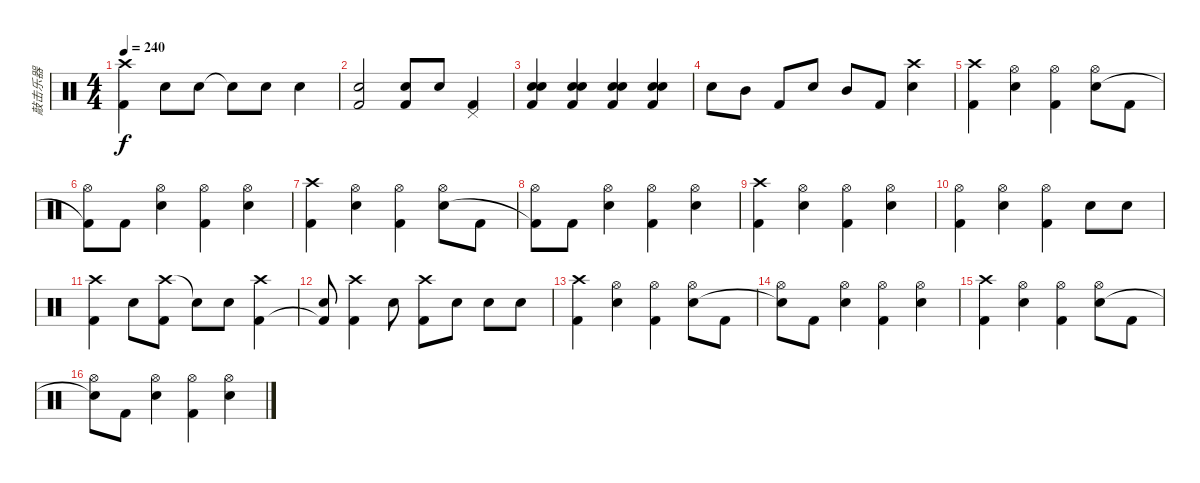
\track ("敲击乐器" "敲击乐器") {instrument percussion}
\staff {score}
\articulation defaults
\ts (4 4)
\tempo 240
\clef neutral
\ks c
("Crash high (hit)" "Kick (hit) 2").4{dy f} "Electric Snare (hit)".8 "Electric Snare (hit)".8 "Snare (hit)"{t}.8 "Electric Snare (hit)".8 "Electric Snare (hit)".4 |
("Electric Snare (hit)" "Kick (hit) 2").2 ("Electric Snare (hit)" "Kick (hit) 2").8 "Electric Snare (hit)".8 ("Pedal Hi-Hat (hit)" "Kick (hit) 2").4 |
("Electric Snare (hit)" "Snare (hit) 2" "Kick (hit) 2").4 ("Electric Snare (hit)" "Snare (hit) 2" "Kick (hit) 2").4 ("Electric Snare (hit)" "Snare (hit) 2" "Kick (hit) 2").4 ("Electric Snare (hit)" "Snare (hit) 2" "Kick (hit) 2").4 |
"Electric Snare (hit)".8 "Mid Tom (hit)".8 "Kick (hit) 2".8 "Snare (hit) 2".8 "Mid Tom (hit)".8 "Kick (hit) 2".8 ("Crash high (hit)" "Electric Snare (hit)").4 |
("Crash high (hit)" "Kick (hit) 2").4 ("Hi-Hat (open)" "Electric Snare (hit)").4 ("Hi-Hat (open)" "Kick (hit) 2").4 ("Hi-Hat (open)" "Electric Snare (hit)").8 "Kick (hit) 2".8 |
("Hi-Hat (open)" "Kick (hit) 2"{t}).8 "Kick (hit) 2".8 ("Hi-Hat (open)" "Electric Snare (hit)").4 ("Hi-Hat (open)" "Kick (hit) 2").4 ("Hi-Hat (open)" "Electric Snare (hit)").4 |
("Crash high (hit)" "Kick (hit) 2").4 ("Hi-Hat (open)" "Electric Snare (hit)").4 ("Hi-Hat (open)" "Kick (hit) 2").4 ("Hi-Hat (open)" "Electric Snare (hit)").8 "Kick (hit) 2".8 |
("Hi-Hat (open)" "Kick (hit) 2"{t}).8 "Kick (hit) 2".8 ("Hi-Hat (open)" "Electric Snare (hit)").4 ("Hi-Hat (open)" "Kick (hit) 2").4 ("Hi-Hat (open)" "Electric Snare (hit)").4 |
("Crash high (hit)" "Kick (hit) 2").4 ("Hi-Hat (open)" "Electric Snare (hit)").4 ("Hi-Hat (open)" "Kick (hit) 2").4 ("Hi-Hat (open)" "Electric Snare (hit)").4 |
("Hi-Hat (open)" "Kick (hit) 2").4 ("Hi-Hat (open)" "Electric Snare (hit)").4 ("Hi-Hat (open)" "Kick (hit) 2").4 "Electric Snare (hit)".8 "Electric Snare (hit)".8 |
("Crash high (hit)" "Kick (hit) 2").4 "Electric Snare (hit)".8 ("Crash high (hit)" "Kick (hit) 2").8 "Snare (hit)"{t}.8 "Electric Snare (hit)".8 ("Crash high (hit)" "Kick (hit) 2").4 |
("Electric Snare (hit)" "Kick (hit) 2"{t}).8 ("Crash high (hit)" "Kick (hit) 2").4 "Electric Snare (hit)".8 ("Crash high (hit)" "Kick (hit) 2").8 "Electric Snare (hit)".8 "Electric Snare (hit)".8 "Electric Snare (hit)".8 |
("Crash high (hit)" "Kick (hit) 2").4 ("Hi-Hat (open)" "Electric Snare (hit)").4 ("Hi-Hat (open)" "Kick (hit) 2").4 ("Hi-Hat (open)" "Electric Snare (hit)").8 "Kick (hit) 2".8 |
("Hi-Hat (open)" "Snare (hit)"{t}).8 "Kick (hit) 2".8 ("Hi-Hat (open)" "Electric Snare (hit)").4 ("Hi-Hat (open)" "Kick (hit) 2").4 ("Hi-Hat (open)" "Electric Snare (hit)").4 |
("Crash high (hit)" "Kick (hit) 2").4 ("Hi-Hat (open)" "Electric Snare (hit)").4 ("Hi-Hat (open)" "Kick (hit) 2").4 ("Hi-Hat (open)" "Electric Snare (hit)").8 "Kick (hit) 2".8 |
("Hi-Hat (open)" "Snare (hit)"{t}).8 "Kick (hit) 2".8 ("Hi-Hat (open)" "Electric Snare (hit)").4 ("Hi-Hat (open)" "Kick (hit) 2").4 ("Hi-Hat (open)" "Electric Snare (hit)").4
